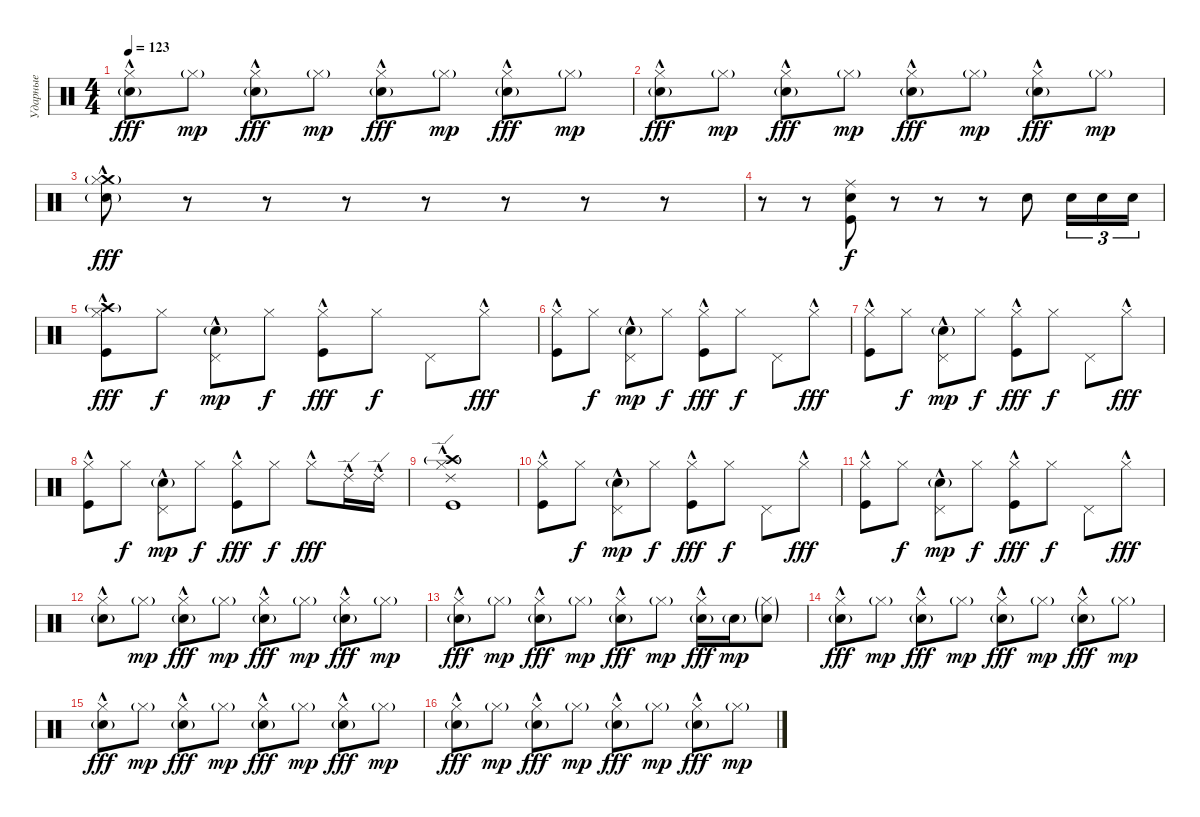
\track ("Ударные" "Ударные") {instrument percussion}
\staff {score}
\articulation defaults
\ts (4 4)
\tempo 123
\clef neutral
\ks c
("Electric Snare (hit)"{g} "Hi-Hat (closed)"{hac}).8{dy fff} "Hi-Hat (closed)"{g}.8{dy mp} ("Electric Snare (hit)"{g} "Hi-Hat (closed)"{hac}).8{dy fff} "Hi-Hat (closed)"{g}.8{dy mp} ("Electric Snare (hit)"{g} "Hi-Hat (closed)"{hac}).8{dy fff} "Hi-Hat (closed)"{g}.8{dy mp} ("Electric Snare (hit)"{g} "Hi-Hat (closed)"{hac}).8{dy fff} "Hi-Hat (closed)"{g}.8{dy mp} |
("Electric Snare (hit)"{g} "Hi-Hat (closed)"{hac}).8{dy fff} "Hi-Hat (closed)"{g}.8{dy mp} ("Electric Snare (hit)"{g} "Hi-Hat (closed)"{hac}).8{dy fff} "Hi-Hat (closed)"{g}.8{dy mp} ("Electric Snare (hit)"{g} "Hi-Hat (closed)"{hac}).8{dy fff} "Hi-Hat (closed)"{g}.8{dy mp} ("Electric Snare (hit)"{g} "Hi-Hat (closed)"{hac}).8{dy fff} "Hi-Hat (closed)"{g}.8{dy mp} |
("Electric Snare (hit)"{g} "Crash medium (hit)"{g} "Hi-Hat (closed)"{hac}).8{dy fff} r.8 r.8 r.8 r.8 r.8 r.8 r.8 |
r.8 r.8 ("Kick (hit)" "Electric Snare (hit)" "Ride (middle)").8{dy f} r.8 r.8 r.8 "Electric Snare (hit)".8 "Electric Snare (hit)".16{tu (3 2)} "Electric Snare (hit)".16{tu (3 2)} "Electric Snare (hit)".16{tu (3 2)} |
("Kick (hit)" "Crash high (hit)"{g} "Hi-Hat (closed)"{hac}).8{dy fff} "Hi-Hat (closed)".8{dy f} ("Pedal Hi-Hat (hit)"{hac} "Electric Snare (hit)"{g}).8{dy mp} "Hi-Hat (closed)".8{dy f} ("Kick (hit)" "Hi-Hat (closed)"{hac}).8{dy fff} "Hi-Hat (closed)".8{dy f} "Pedal Hi-Hat (hit)".8 "Hi-Hat (closed)"{hac}.8{dy fff} |
("Kick (hit)" "Hi-Hat (closed)"{hac}).8 "Hi-Hat (closed)".8{dy f} ("Pedal Hi-Hat (hit)"{hac} "Electric Snare (hit)"{g}).8{dy mp} "Hi-Hat (closed)".8{dy f} ("Kick (hit)" "Hi-Hat (closed)"{hac}).8{dy fff} "Hi-Hat (closed)".8{dy f} "Pedal Hi-Hat (hit)".8 "Hi-Hat (closed)"{hac}.8{dy fff} |
("Kick (hit)" "Hi-Hat (closed)"{hac}).8 "Hi-Hat (closed)".8{dy f} ("Pedal Hi-Hat (hit)"{hac} "Electric Snare (hit)"{g}).8{dy mp} "Hi-Hat (closed)".8{dy f} ("Kick (hit)" "Hi-Hat (closed)"{hac}).8{dy fff} "Hi-Hat (closed)".8{dy f} "Pedal Hi-Hat (hit)".8 "Hi-Hat (closed)"{hac}.8{dy fff} |
("Kick (hit)" "Hi-Hat (closed)"{hac}).8 "Hi-Hat (closed)".8{dy f} ("Pedal Hi-Hat (hit)"{hac} "Electric Snare (hit)"{g}).8{dy mp} "Hi-Hat (closed)".8{dy f} ("Kick (hit)" "Hi-Hat (closed)"{hac}).8{dy fff} "Hi-Hat (closed)".8{dy f} "Hi-Hat (closed)"{hac}.8{dy fff} "Ride (edge) 2"{hac}.16 "Ride (edge) 2"{hac}.16 |
("Kick (hit)" "Crash high (hit)"{g} "Hi-Hat (closed)"{hac} "Ride (edge) 2").1 |
("Kick (hit)" "Hi-Hat (closed)"{hac}).8 "Hi-Hat (closed)".8{dy f} ("Pedal Hi-Hat (hit)"{hac} "Electric Snare (hit)"{g}).8{dy mp} "Hi-Hat (closed)".8{dy f} ("Kick (hit)" "Hi-Hat (closed)"{hac}).8{dy fff} "Hi-Hat (closed)".8{dy f} "Pedal Hi-Hat (hit)".8 "Hi-Hat (closed)"{hac}.8{dy fff} |
("Kick (hit)" "Hi-Hat (closed)"{hac}).8 "Hi-Hat (closed)".8{dy f} ("Pedal Hi-Hat (hit)"{hac} "Electric Snare (hit)"{g}).8{dy mp} "Hi-Hat (closed)".8{dy f} ("Kick (hit)" "Hi-Hat (closed)"{hac}).8{dy fff} "Hi-Hat (closed)".8{dy f} "Pedal Hi-Hat (hit)".8 "Hi-Hat (closed)"{hac}.8{dy fff} |
("Electric Snare (hit)"{g} "Hi-Hat (closed)"{hac}).8 "Hi-Hat (closed)"{g}.8{dy mp} ("Electric Snare (hit)"{g} "Hi-Hat (closed)"{hac}).8{dy fff} "Hi-Hat (closed)"{g}.8{dy mp} ("Electric Snare (hit)"{g} "Hi-Hat (closed)"{hac}).8{dy fff} "Hi-Hat (closed)"{g}.8{dy mp} ("Electric Snare (hit)"{g} "Hi-Hat (closed)"{hac}).8{dy fff} "Hi-Hat (closed)"{g}.8{dy mp} |
("Electric Snare (hit)"{g} "Hi-Hat (closed)"{hac}).8{dy fff} "Hi-Hat (closed)"{g}.8{dy mp} ("Electric Snare (hit)"{g} "Hi-Hat (closed)"{hac}).8{dy fff} "Hi-Hat (closed)"{g}.8{dy mp} ("Electric Snare (hit)"{g} "Hi-Hat (closed)"{hac}).8{dy fff} "Hi-Hat (closed)"{g}.8{dy mp} ("Electric Snare (hit)"{g} "Hi-Hat (closed)"{hac}).16{dy fff} "Electric Snare (hit)"{g}.16{dy mp} ("Electric Snare (hit)"{g} "Hi-Hat (closed)"{g}).8 |
("Electric Snare (hit)"{g} "Hi-Hat (closed)"{hac}).8{dy fff} "Hi-Hat (closed)"{g}.8{dy mp} ("Electric Snare (hit)"{g} "Hi-Hat (closed)"{hac}).8{dy fff} "Hi-Hat (closed)"{g}.8{dy mp} ("Electric Snare (hit)"{g} "Hi-Hat (closed)"{hac}).8{dy fff} "Hi-Hat (closed)"{g}.8{dy mp} ("Electric Snare (hit)"{g} "Hi-Hat (closed)"{hac}).8{dy fff} "Hi-Hat (closed)"{g}.8{dy mp} |
("Electric Snare (hit)"{g} "Hi-Hat (closed)"{hac}).8{dy fff} "Hi-Hat (closed)"{g}.8{dy mp} ("Electric Snare (hit)"{g} "Hi-Hat (closed)"{hac}).8{dy fff} "Hi-Hat (closed)"{g}.8{dy mp} ("Electric Snare (hit)"{g} "Hi-Hat (closed)"{hac}).8{dy fff} "Hi-Hat (closed)"{g}.8{dy mp} ("Electric Snare (hit)"{g} "Hi-Hat (closed)"{hac}).8{dy fff} "Hi-Hat (closed)"{g}.8{dy mp} |
("Electric Snare (hit)"{g} "Hi-Hat (closed)"{hac}).8{dy fff} "Hi-Hat (closed)"{g}.8{dy mp} ("Electric Snare (hit)"{g} "Hi-Hat (closed)"{hac}).8{dy fff} "Hi-Hat (closed)"{g}.8{dy mp} ("Electric Snare (hit)"{g} "Hi-Hat (closed)"{hac}).8{dy fff} "Hi-Hat (closed)"{g}.8{dy mp} ("Electric Snare (hit)"{g} "Hi-Hat (closed)"{hac}).8{dy fff} "Hi-Hat (closed)"{g}.8{dy mp}
